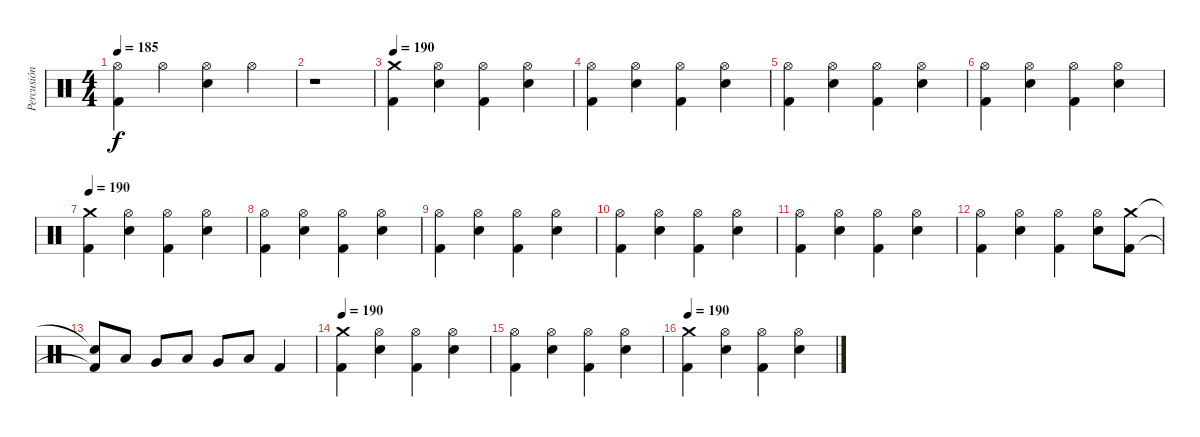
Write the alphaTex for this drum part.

\track ("Percusión" "Percusión") {instrument percussion}
\staff {score}
\articulation defaults
\ts (4 4)
\tempo 185
\clef neutral
\ks c
("Hi-Hat (open)" "Kick (hit) 2").4{dy f} "Hi-Hat (open)".4 ("Hi-Hat (open)" "Electric Snare (hit)").4 "Hi-Hat (open)".4 |
r.1 |
\tempo 190
("Crash medium (hit)" "Kick (hit) 2").4 ("Hi-Hat (open)" "Electric Snare (hit)").4 ("Hi-Hat (open)" "Kick (hit) 2").4 ("Hi-Hat (open)" "Electric Snare (hit)").4 |
("Hi-Hat (open)" "Kick (hit) 2").4 ("Hi-Hat (open)" "Electric Snare (hit)").4 ("Hi-Hat (open)" "Kick (hit) 2").4 ("Hi-Hat (open)" "Electric Snare (hit)").4 |
("Hi-Hat (open)" "Kick (hit) 2").4 ("Hi-Hat (open)" "Electric Snare (hit)").4 ("Hi-Hat (open)" "Kick (hit) 2").4 ("Hi-Hat (open)" "Electric Snare (hit)").4 |
("Hi-Hat (open)" "Kick (hit) 2").4 ("Hi-Hat (open)" "Electric Snare (hit)").4 ("Hi-Hat (open)" "Kick (hit) 2").4 ("Hi-Hat (open)" "Electric Snare (hit)").4 |
\tempo 190
("Crash medium (hit)" "Kick (hit) 2").4 ("Hi-Hat (open)" "Electric Snare (hit)").4 ("Hi-Hat (open)" "Kick (hit) 2").4 ("Hi-Hat (open)" "Electric Snare (hit)").4 |
("Hi-Hat (open)" "Kick (hit) 2").4 ("Hi-Hat (open)" "Electric Snare (hit)").4 ("Hi-Hat (open)" "Kick (hit) 2").4 ("Hi-Hat (open)" "Electric Snare (hit)").4 |
("Hi-Hat (open)" "Kick (hit) 2").4 ("Hi-Hat (open)" "Electric Snare (hit)").4 ("Hi-Hat (open)" "Kick (hit) 2").4 ("Hi-Hat (open)" "Electric Snare (hit)").4 |
("Hi-Hat (open)" "Kick (hit) 2").4 ("Hi-Hat (open)" "Electric Snare (hit)").4 ("Hi-Hat (open)" "Kick (hit) 2").4 ("Hi-Hat (open)" "Electric Snare (hit)").4 |
("Hi-Hat (open)" "Kick (hit) 2").4 ("Hi-Hat (open)" "Electric Snare (hit)").4 ("Hi-Hat (open)" "Kick (hit) 2").4 ("Hi-Hat (open)" "Electric Snare (hit)").4 |
("Hi-Hat (open)" "Kick (hit) 2").4 ("Hi-Hat (open)" "Electric Snare (hit)").4 ("Hi-Hat (open)" "Kick (hit) 2").4 ("Hi-Hat (open)" "Electric Snare (hit)").8 ("Crash medium (hit)" "Kick (hit) 2").8 |
("Snare (hit)"{t} "Kick (hit) 2"{t}).8 "Low Tom (hit)".8 "Very Low Tom (hit)".8 "Low Tom (hit)".8 "Very Low Tom (hit)".8 "Low Floor Tom (hit)".8 "Kick (hit) 2".4 |
\tempo 190
("Crash medium (hit)" "Kick (hit) 2").4 ("Hi-Hat (open)" "Electric Snare (hit)").4 ("Hi-Hat (open)" "Kick (hit) 2").4 ("Hi-Hat (open)" "Electric Snare (hit)").4 |
("Hi-Hat (open)" "Kick (hit) 2").4 ("Hi-Hat (open)" "Electric Snare (hit)").4 ("Hi-Hat (open)" "Kick (hit) 2").4 ("Hi-Hat (open)" "Electric Snare (hit)").4 |
\tempo 190
("Crash medium (hit)" "Kick (hit) 2").4 ("Hi-Hat (open)" "Electric Snare (hit)").4 ("Hi-Hat (open)" "Kick (hit) 2").4 ("Hi-Hat (open)" "Electric Snare (hit)").4
